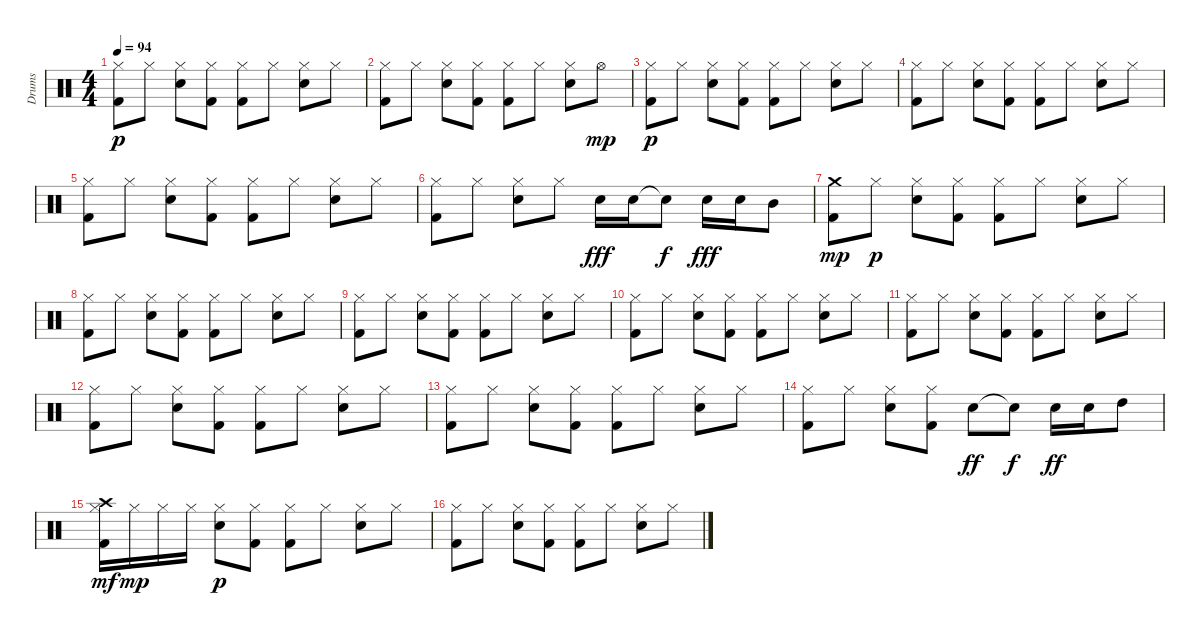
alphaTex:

\track ("Drums" "Drums") {instrument percussion}
\staff {score}
\articulation defaults
\ts (4 4)
\tempo 94
\clef neutral
\ks c
("Hi-Hat (closed)" "Kick (hit) 2").8{dy p} "Hi-Hat (closed)".8 ("Hi-Hat (closed)" "Snare (hit) 2").8 ("Hi-Hat (closed)" "Kick (hit) 2").8 ("Hi-Hat (closed)" "Kick (hit) 2").8 "Hi-Hat (closed)".8 ("Hi-Hat (closed)" "Snare (hit) 2").8 "Hi-Hat (closed)".8 |
("Hi-Hat (closed)" "Kick (hit) 2").8 "Hi-Hat (closed)".8 ("Hi-Hat (closed)" "Snare (hit) 2").8 ("Hi-Hat (closed)" "Kick (hit) 2").8 ("Hi-Hat (closed)" "Kick (hit) 2").8 "Hi-Hat (closed)".8 ("Hi-Hat (closed)" "Snare (hit) 2").8 "Hi-Hat (open)".8{dy mp} |
("Hi-Hat (closed)" "Kick (hit) 2").8{dy p} "Hi-Hat (closed)".8 ("Hi-Hat (closed)" "Snare (hit) 2").8 ("Hi-Hat (closed)" "Kick (hit) 2").8 ("Hi-Hat (closed)" "Kick (hit) 2").8 "Hi-Hat (closed)".8 ("Hi-Hat (closed)" "Snare (hit) 2").8 "Hi-Hat (closed)".8 |
("Hi-Hat (closed)" "Kick (hit) 2").8 "Hi-Hat (closed)".8 ("Hi-Hat (closed)" "Snare (hit) 2").8 ("Hi-Hat (closed)" "Kick (hit) 2").8 ("Hi-Hat (closed)" "Kick (hit) 2").8 "Hi-Hat (closed)".8 ("Hi-Hat (closed)" "Snare (hit) 2").8 "Hi-Hat (closed)".8 |
("Hi-Hat (closed)" "Kick (hit) 2").8 "Hi-Hat (closed)".8 ("Hi-Hat (closed)" "Snare (hit) 2").8 ("Hi-Hat (closed)" "Kick (hit) 2").8 ("Hi-Hat (closed)" "Kick (hit) 2").8 "Hi-Hat (closed)".8 ("Hi-Hat (closed)" "Snare (hit) 2").8 "Hi-Hat (closed)".8 |
("Hi-Hat (closed)" "Kick (hit) 2").8 "Hi-Hat (closed)".8 ("Hi-Hat (closed)" "Snare (hit) 2").8 "Hi-Hat (closed)".8 "Snare (hit) 2".16{dy fff} "Snare (hit) 2".16 "Snare (hit)"{t}.8{dy f} "Snare (hit) 2".16{dy fff} "Snare (hit) 2".16 "Mid Tom (hit)".8 |
("Crash medium (hit)" "Kick (hit) 2").8{dy mp} "Hi-Hat (closed)".8{dy p} ("Hi-Hat (closed)" "Snare (hit) 2").8 ("Hi-Hat (closed)" "Kick (hit) 2").8 ("Hi-Hat (closed)" "Kick (hit) 2").8 "Hi-Hat (closed)".8 ("Hi-Hat (closed)" "Snare (hit) 2").8 "Hi-Hat (closed)".8 |
("Hi-Hat (closed)" "Kick (hit) 2").8 "Hi-Hat (closed)".8 ("Hi-Hat (closed)" "Snare (hit) 2").8 ("Hi-Hat (closed)" "Kick (hit) 2").8 ("Hi-Hat (closed)" "Kick (hit) 2").8 "Hi-Hat (closed)".8 ("Hi-Hat (closed)" "Snare (hit) 2").8 "Hi-Hat (closed)".8 |
("Hi-Hat (closed)" "Kick (hit) 2").8 "Hi-Hat (closed)".8 ("Hi-Hat (closed)" "Snare (hit) 2").8 ("Hi-Hat (closed)" "Kick (hit) 2").8 ("Hi-Hat (closed)" "Kick (hit) 2").8 "Hi-Hat (closed)".8 ("Hi-Hat (closed)" "Snare (hit) 2").8 "Hi-Hat (closed)".8 |
("Hi-Hat (closed)" "Kick (hit) 2").8 "Hi-Hat (closed)".8 ("Hi-Hat (closed)" "Snare (hit) 2").8 ("Hi-Hat (closed)" "Kick (hit) 2").8 ("Hi-Hat (closed)" "Kick (hit) 2").8 "Hi-Hat (closed)".8 ("Hi-Hat (closed)" "Snare (hit) 2").8 "Hi-Hat (closed)".8 |
("Hi-Hat (closed)" "Kick (hit) 2").8 "Hi-Hat (closed)".8 ("Hi-Hat (closed)" "Snare (hit) 2").8 ("Hi-Hat (closed)" "Kick (hit) 2").8 ("Hi-Hat (closed)" "Kick (hit) 2").8 "Hi-Hat (closed)".8 ("Hi-Hat (closed)" "Snare (hit) 2").8 "Hi-Hat (closed)".8 |
("Hi-Hat (closed)" "Kick (hit) 2").8 "Hi-Hat (closed)".8 ("Hi-Hat (closed)" "Snare (hit) 2").8 ("Hi-Hat (closed)" "Kick (hit) 2").8 ("Hi-Hat (closed)" "Kick (hit) 2").8 "Hi-Hat (closed)".8 ("Hi-Hat (closed)" "Snare (hit) 2").8 "Hi-Hat (closed)".8 |
("Hi-Hat (closed)" "Kick (hit) 2").8 "Hi-Hat (closed)".8 ("Hi-Hat (closed)" "Snare (hit) 2").8 ("Hi-Hat (closed)" "Kick (hit) 2").8 ("Hi-Hat (closed)" "Kick (hit) 2").8 "Hi-Hat (closed)".8 ("Hi-Hat (closed)" "Snare (hit) 2").8 "Hi-Hat (closed)".8 |
("Hi-Hat (closed)" "Kick (hit) 2").8 "Hi-Hat (closed)".8 ("Hi-Hat (closed)" "Snare (hit) 2").8 ("Hi-Hat (closed)" "Kick (hit) 2").8 "Snare (hit) 2".8{dy ff} "Snare (hit)"{t}.8{dy f} "Snare (hit) 2".16{dy ff} "Snare (hit) 2".16 "High Tom (hit)".8 |
("Hi-Hat (closed)" "Crash high (hit)" "Kick (hit) 2").16{dy mf} "Hi-Hat (closed)".16{dy mp} "Hi-Hat (closed)".16 "Hi-Hat (closed)".16 ("Hi-Hat (closed)" "Snare (hit) 2").8{dy p} ("Hi-Hat (closed)" "Kick (hit) 2").8 ("Hi-Hat (closed)" "Kick (hit) 2").8 "Hi-Hat (closed)".8 ("Hi-Hat (closed)" "Snare (hit) 2").8 "Hi-Hat (closed)".8 |
("Hi-Hat (closed)" "Kick (hit) 2").8 "Hi-Hat (closed)".8 ("Hi-Hat (closed)" "Snare (hit) 2").8 ("Hi-Hat (closed)" "Kick (hit) 2").8 ("Hi-Hat (closed)" "Kick (hit) 2").8 "Hi-Hat (closed)".8 ("Hi-Hat (closed)" "Snare (hit) 2").8 "Hi-Hat (closed)".8
